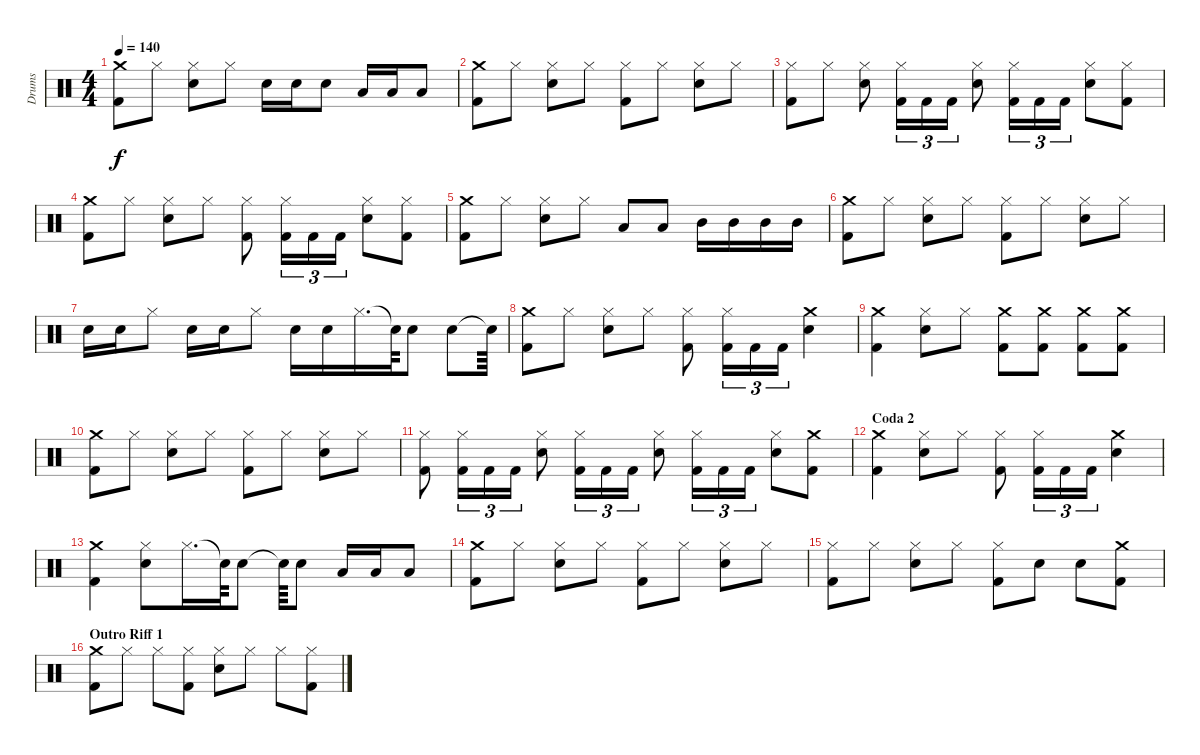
\track ("Drums" "Drums") {instrument percussion}
\staff {score}
\articulation defaults
\ts (4 4)
\tempo 140
\clef neutral
\ks c
("Kick (hit) 2" "Crash medium (hit)").8{dy f} "Hi-Hat (closed)".8 ("Snare (hit) 2" "Hi-Hat (closed)").8 "Hi-Hat (closed)".8 "Snare (hit) 2".16 "Snare (hit) 2".16 "Snare (hit) 2".8 "Low Tom (hit)".16 "Low Tom (hit)".16 "Low Tom (hit)".8 |
("Crash medium (hit)" "Kick (hit) 2").8 "Hi-Hat (closed)".8 ("Snare (hit) 2" "Hi-Hat (closed)").8 "Hi-Hat (closed)".8 ("Hi-Hat (closed)" "Kick (hit) 2").8 "Hi-Hat (closed)".8 ("Snare (hit) 2" "Hi-Hat (closed)").8 "Hi-Hat (closed)".8 |
("Kick (hit) 2" "Hi-Hat (closed)").8 "Hi-Hat (closed)".8 ("Snare (hit) 2" "Hi-Hat (closed)").8 ("Kick (hit) 2" "Hi-Hat (closed)").16{tu (3 2)} "Kick (hit) 2".16{tu (3 2)} "Kick (hit) 2".16{tu (3 2)} ("Snare (hit) 2" "Hi-Hat (closed)").8 ("Kick (hit) 2" "Hi-Hat (closed)").16{tu (3 2)} "Kick (hit) 2".16{tu (3 2)} "Kick (hit) 2".16{tu (3 2)} ("Snare (hit) 2" "Hi-Hat (closed)").8 ("Kick (hit) 2" "Hi-Hat (closed)").8 |
("Crash medium (hit)" "Kick (hit) 2").8 "Hi-Hat (closed)".8 ("Snare (hit) 2" "Hi-Hat (closed)").8 "Hi-Hat (closed)".8 ("Hi-Hat (closed)" "Kick (hit) 2").8 ("Hi-Hat (closed)" "Kick (hit) 2").16{tu (3 2)} "Kick (hit) 2".16{tu (3 2)} "Kick (hit) 2".16{tu (3 2)} ("Snare (hit) 2" "Hi-Hat (closed)").8 ("Hi-Hat (closed)" "Kick (hit) 2").8 |
("Kick (hit) 2" "Crash medium (hit)").8 "Hi-Hat (closed)".8 ("Snare (hit) 2" "Hi-Hat (closed)").8 "Hi-Hat (closed)".8 "Low Tom (hit)".8 "Low Tom (hit)".8 "Mid Tom (hit)".16 "Mid Tom (hit)".16 "Mid Tom (hit)".16 "Mid Tom (hit)".16 |
("Crash medium (hit)" "Kick (hit) 2").8 "Hi-Hat (closed)".8 ("Snare (hit) 2" "Hi-Hat (closed)").8 "Hi-Hat (closed)".8 ("Hi-Hat (closed)" "Kick (hit) 2").8 "Hi-Hat (closed)".8 ("Snare (hit) 2" "Hi-Hat (closed)").8 "Hi-Hat (closed)".8 |
"Snare (hit) 2".16 "Snare (hit) 2".16 "Hi-Hat (closed)".8 "Snare (hit) 2".16 "Snare (hit) 2".16 "Hi-Hat (closed)".8 "Snare (hit) 2".16 "Snare (hit) 2".16 "Hi-Hat (closed)".16{d} "Snare (hit)"{t}.64 "Snare (hit) 2".8 "Snare (hit) 2".8 "Snare (hit)"{t}.64 |
("Crash medium (hit)" "Kick (hit) 2").8 "Hi-Hat (closed)".8 ("Snare (hit) 2" "Hi-Hat (closed)").8 "Hi-Hat (closed)".8 ("Hi-Hat (closed)" "Kick (hit) 2").8 ("Hi-Hat (closed)" "Kick (hit) 2").16{tu (3 2)} "Kick (hit) 2".16{tu (3 2)} "Kick (hit) 2".16{tu (3 2)} ("Snare (hit) 2" "Crash medium (hit)").4 |
("Kick (hit) 2" "Crash medium (hit)").4 ("Snare (hit) 2" "Hi-Hat (closed)").8 "Hi-Hat (closed)".8 ("Kick (hit) 2" "Crash medium (hit)").8 ("Kick (hit) 2" "Crash medium (hit)").8 ("Kick (hit) 2" "Crash medium (hit)").8 ("Kick (hit) 2" "Crash medium (hit)").8 |
("Crash medium (hit)" "Kick (hit) 2").8 "Hi-Hat (closed)".8 ("Snare (hit) 2" "Hi-Hat (closed)").8 "Hi-Hat (closed)".8 ("Hi-Hat (closed)" "Kick (hit) 2").8 "Hi-Hat (closed)".8 ("Snare (hit) 2" "Hi-Hat (closed)").8 "Hi-Hat (closed)".8 |
("Kick (hit) 2" "Hi-Hat (closed)").8 ("Kick (hit) 2" "Hi-Hat (closed)").16{tu (3 2)} "Kick (hit) 2".16{tu (3 2)} "Kick (hit) 2".16{tu (3 2)} ("Snare (hit) 2" "Hi-Hat (closed)").8 ("Kick (hit) 2" "Hi-Hat (closed)").16{tu (3 2)} "Kick (hit) 2".16{tu (3 2)} "Kick (hit) 2".16{tu (3 2)} ("Snare (hit) 2" "Hi-Hat (closed)").8 ("Kick (hit) 2" "Hi-Hat (closed)").16{tu (3 2)} "Kick (hit) 2".16{tu (3 2)} "Kick (hit) 2".16{tu (3 2)} ("Snare (hit) 2" "Hi-Hat (closed)").8 ("Crash medium (hit)" "Kick (hit) 2").8 |
\section ("" "Coda 2")
("Kick (hit) 2" "Crash medium (hit)").4 ("Snare (hit) 2" "Hi-Hat (closed)").8 "Hi-Hat (closed)".8 ("Hi-Hat (closed)" "Kick (hit) 2").8 ("Hi-Hat (closed)" "Kick (hit) 2").16{tu (3 2)} "Kick (hit) 2".16{tu (3 2)} "Kick (hit) 2".16{tu (3 2)} ("Snare (hit) 2" "Crash medium (hit)").4 |
("Kick (hit) 2" "Crash medium (hit)").4 ("Hi-Hat (closed)" "Snare (hit) 2").8 "Hi-Hat (closed)".16{d} "Snare (hit)"{t}.64 "Snare (hit) 2".8 "Snare (hit)"{t}.64 "Snare (hit) 2".8 "Low Tom (hit)".16 "Low Tom (hit)".16 "Low Tom (hit)".8 |
("Kick (hit) 2" "Crash medium (hit)").8 "Hi-Hat (closed)".8 ("Snare (hit) 2" "Hi-Hat (closed)").8 "Hi-Hat (closed)".8 ("Kick (hit) 2" "Hi-Hat (closed)").8 "Hi-Hat (closed)".8 ("Snare (hit) 2" "Hi-Hat (closed)").8 "Hi-Hat (closed)".8 |
("Hi-Hat (closed)" "Kick (hit) 2").8 "Hi-Hat (closed)".8 ("Snare (hit) 2" "Hi-Hat (closed)").8 "Hi-Hat (closed)".8 ("Hi-Hat (closed)" "Kick (hit) 2").8 "Snare (hit) 2".8 "Snare (hit) 2".8 ("Crash medium (hit)" "Kick (hit) 2").8 |
\section ("" "Outro Riff 1")
("Kick (hit) 2" "Crash medium (hit)").8 "Hi-Hat (closed)".8 "Hi-Hat (closed)".8 ("Kick (hit) 2" "Hi-Hat (closed)").8 ("Hi-Hat (closed)" "Snare (hit) 2").8 "Hi-Hat (closed)".8 "Hi-Hat (closed)".8 ("Kick (hit) 2" "Hi-Hat (closed)").8
